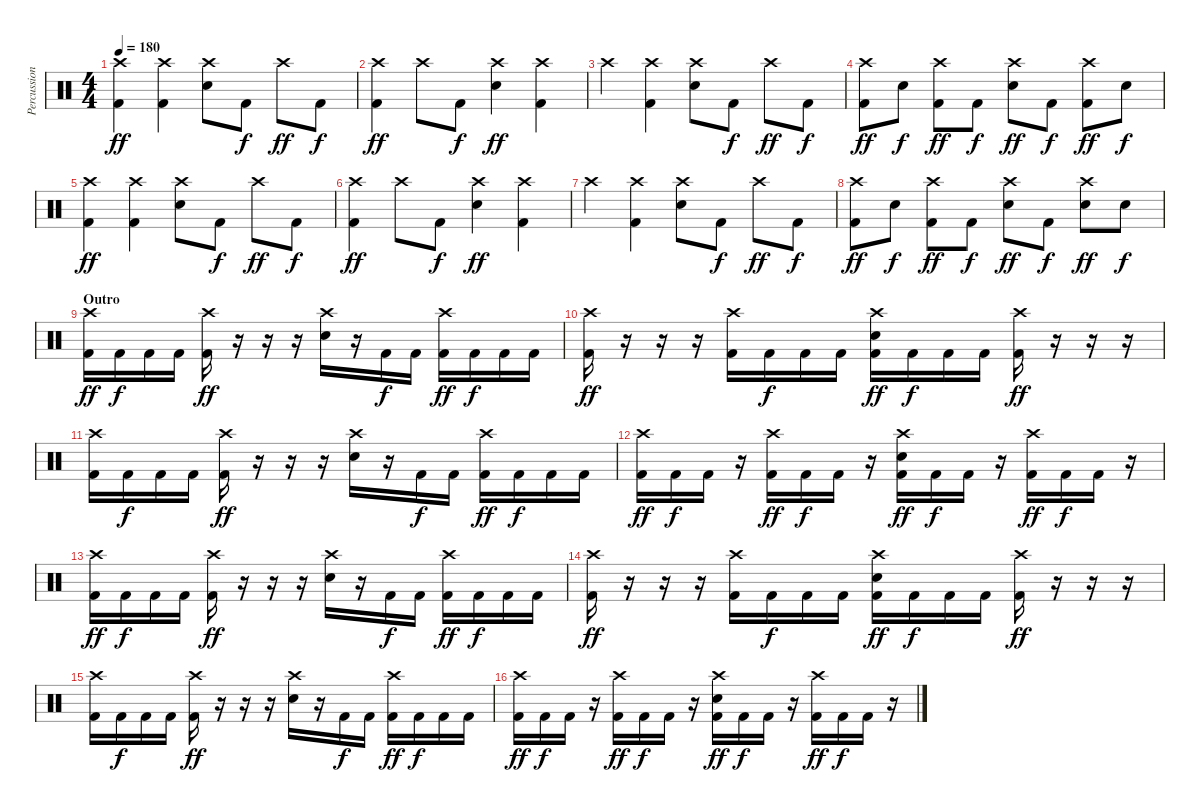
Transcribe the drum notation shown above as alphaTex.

\track ("Percussions" "Percussion") {instrument percussion}
\staff {score}
\articulation defaults
\ts (4 4)
\tempo 180
\clef neutral
\ks c
("Crash high (hit)" "Kick (hit) 2").4{dy ff} ("Crash high (hit)" "Kick (hit) 2").4 ("Crash high (hit)" "Electric Snare (hit)").8 "Kick (hit) 2".8{dy f} "Crash high (hit)".8{dy ff} "Kick (hit) 2".8{dy f} |
("Crash high (hit)" "Kick (hit) 2").4{dy ff} "Crash high (hit)".8 "Kick (hit) 2".8{dy f} ("Crash high (hit)" "Electric Snare (hit)").4{dy ff} ("Crash high (hit)" "Kick (hit) 2").4 |
"Crash high (hit)".4 ("Crash high (hit)" "Kick (hit) 2").4 ("Crash high (hit)" "Electric Snare (hit)").8 "Kick (hit) 2".8{dy f} "Crash high (hit)".8{dy ff} "Kick (hit) 2".8{dy f} |
("Crash high (hit)" "Kick (hit) 2").8{dy ff} "Electric Snare (hit)".8{dy f} ("Crash high (hit)" "Kick (hit) 2").8{dy ff} "Kick (hit) 2".8{dy f} ("Crash high (hit)" "Electric Snare (hit)").8{dy ff} "Kick (hit) 2".8{dy f} ("Crash high (hit)" "Kick (hit) 2").8{dy ff} "Electric Snare (hit)".8{dy f} |
("Crash high (hit)" "Kick (hit) 2").4{dy ff} ("Crash high (hit)" "Kick (hit) 2").4 ("Crash high (hit)" "Electric Snare (hit)").8 "Kick (hit) 2".8{dy f} "Crash high (hit)".8{dy ff} "Kick (hit) 2".8{dy f} |
("Crash high (hit)" "Kick (hit) 2").4{dy ff} "Crash high (hit)".8 "Kick (hit) 2".8{dy f} ("Crash high (hit)" "Electric Snare (hit)").4{dy ff} ("Crash high (hit)" "Kick (hit) 2").4 |
"Crash high (hit)".4 ("Crash high (hit)" "Kick (hit) 2").4 ("Crash high (hit)" "Electric Snare (hit)").8 "Kick (hit) 2".8{dy f} "Crash high (hit)".8{dy ff} "Kick (hit) 2".8{dy f} |
("Crash high (hit)" "Kick (hit) 2").8{dy ff} "Electric Snare (hit)".8{dy f} ("Crash high (hit)" "Kick (hit) 2").8{dy ff} "Kick (hit) 2".8{dy f} ("Crash high (hit)" "Electric Snare (hit)").8{dy ff} "Kick (hit) 2".8{dy f} ("Crash high (hit)" "Electric Snare (hit)").8{dy ff} "Electric Snare (hit)".8{dy f} |
\section ("" "Outro")
("Crash high (hit)" "Kick (hit) 2").16{dy ff} "Kick (hit) 2".16{dy f} "Kick (hit) 2".16 "Kick (hit) 2".16 ("Crash high (hit)" "Kick (hit) 2").16{dy ff} r.16 r.16 r.16 ("Crash high (hit)" "Electric Snare (hit)").16 r.16 "Kick (hit) 2".16{dy f} "Kick (hit) 2".16 ("Crash high (hit)" "Kick (hit) 2").16{dy ff} "Kick (hit) 2".16{dy f} "Kick (hit) 2".16 "Kick (hit) 2".16 |
("Crash high (hit)" "Kick (hit) 2").16{dy ff} r.16 r.16 r.16 ("Crash high (hit)" "Kick (hit) 2").16 "Kick (hit) 2".16{dy f} "Kick (hit) 2".16 "Kick (hit) 2".16 ("Crash high (hit)" "Electric Snare (hit)" "Kick (hit) 2").16{dy ff} "Kick (hit) 2".16{dy f} "Kick (hit) 2".16 "Kick (hit) 2".16 ("Crash high (hit)" "Kick (hit) 2").16{dy ff} r.16 r.16 r.16 |
("Crash high (hit)" "Kick (hit) 2").16 "Kick (hit) 2".16{dy f} "Kick (hit) 2".16 "Kick (hit) 2".16 ("Crash high (hit)" "Kick (hit) 2").16{dy ff} r.16 r.16 r.16 ("Crash high (hit)" "Electric Snare (hit)").16 r.16 "Kick (hit) 2".16{dy f} "Kick (hit) 2".16 ("Crash high (hit)" "Kick (hit) 2").16{dy ff} "Kick (hit) 2".16{dy f} "Kick (hit) 2".16 "Kick (hit) 2".16 |
("Crash high (hit)" "Kick (hit) 2").16{dy ff} "Kick (hit) 2".16{dy f} "Kick (hit) 2".16 r.16 ("Crash high (hit)" "Kick (hit) 2").16{dy ff} "Kick (hit) 2".16{dy f} "Kick (hit) 2".16 r.16 ("Crash high (hit)" "Electric Snare (hit)" "Kick (hit) 2").16{dy ff} "Kick (hit) 2".16{dy f} "Kick (hit) 2".16 r.16 ("Crash high (hit)" "Kick (hit) 2").16{dy ff} "Kick (hit) 2".16{dy f} "Kick (hit) 2".16 r.16 |
("Crash high (hit)" "Kick (hit) 2").16{dy ff} "Kick (hit) 2".16{dy f} "Kick (hit) 2".16 "Kick (hit) 2".16 ("Crash high (hit)" "Kick (hit) 2").16{dy ff} r.16 r.16 r.16 ("Crash high (hit)" "Electric Snare (hit)").16 r.16 "Kick (hit) 2".16{dy f} "Kick (hit) 2".16 ("Crash high (hit)" "Kick (hit) 2").16{dy ff} "Kick (hit) 2".16{dy f} "Kick (hit) 2".16 "Kick (hit) 2".16 |
("Crash high (hit)" "Kick (hit) 2").16{dy ff} r.16 r.16 r.16 ("Crash high (hit)" "Kick (hit) 2").16 "Kick (hit) 2".16{dy f} "Kick (hit) 2".16 "Kick (hit) 2".16 ("Crash high (hit)" "Electric Snare (hit)" "Kick (hit) 2").16{dy ff} "Kick (hit) 2".16{dy f} "Kick (hit) 2".16 "Kick (hit) 2".16 ("Crash high (hit)" "Kick (hit) 2").16{dy ff} r.16 r.16 r.16 |
("Crash high (hit)" "Kick (hit) 2").16 "Kick (hit) 2".16{dy f} "Kick (hit) 2".16 "Kick (hit) 2".16 ("Crash high (hit)" "Kick (hit) 2").16{dy ff} r.16 r.16 r.16 ("Crash high (hit)" "Electric Snare (hit)").16 r.16 "Kick (hit) 2".16{dy f} "Kick (hit) 2".16 ("Crash high (hit)" "Kick (hit) 2").16{dy ff} "Kick (hit) 2".16{dy f} "Kick (hit) 2".16 "Kick (hit) 2".16 |
("Crash high (hit)" "Kick (hit) 2").16{dy ff} "Kick (hit) 2".16{dy f} "Kick (hit) 2".16 r.16 ("Crash high (hit)" "Kick (hit) 2").16{dy ff} "Kick (hit) 2".16{dy f} "Kick (hit) 2".16 r.16 ("Crash high (hit)" "Electric Snare (hit)" "Kick (hit) 2").16{dy ff} "Kick (hit) 2".16{dy f} "Kick (hit) 2".16 r.16 ("Crash high (hit)" "Kick (hit) 2").16{dy ff} "Kick (hit) 2".16{dy f} "Kick (hit) 2".16 r.16
